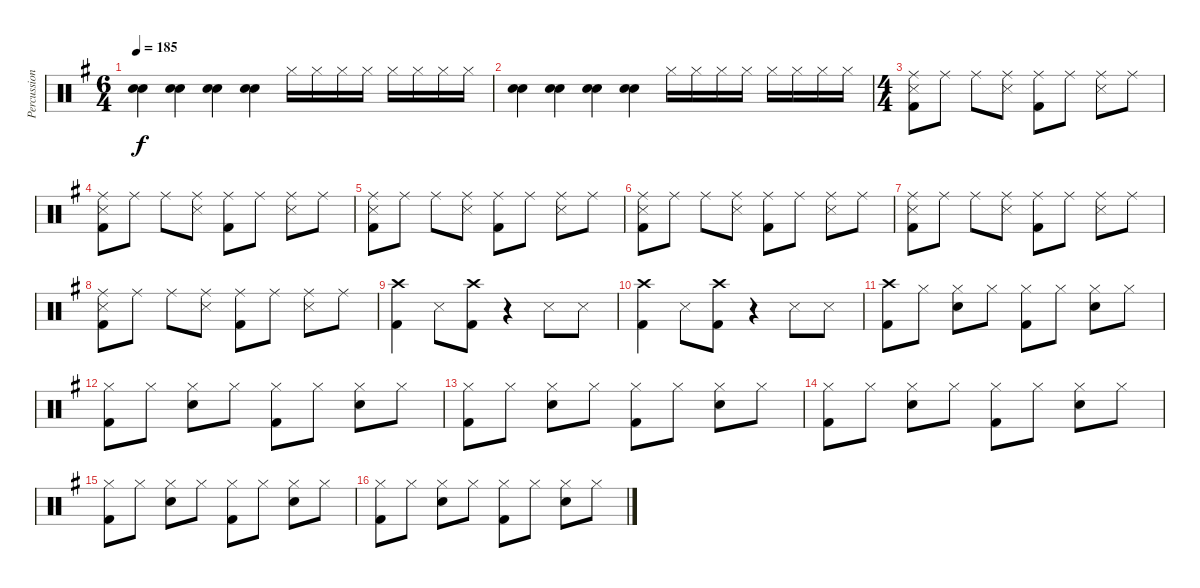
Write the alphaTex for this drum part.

\track ("Percussion" "Percussion") {instrument percussion}
\staff {score}
\articulation defaults
\ts (6 4)
\tempo 185
\clef neutral
\ks g
("Electric Snare (hit)" "Snare (hit) 2").4{dy f} ("Electric Snare (hit)" "Snare (hit) 2").4 ("Electric Snare (hit)" "Snare (hit) 2").4 ("Electric Snare (hit)" "Snare (hit) 2").4 "Hi-Hat (closed)".16 "Hi-Hat (closed)".16 "Hi-Hat (closed)".16 "Hi-Hat (closed)".16 "Hi-Hat (closed)".16 "Hi-Hat (closed)".16 "Hi-Hat (closed)".16 "Hi-Hat (closed)".16 |
("Electric Snare (hit)" "Snare (hit) 2").4 ("Electric Snare (hit)" "Snare (hit) 2").4 ("Electric Snare (hit)" "Snare (hit) 2").4 ("Electric Snare (hit)" "Snare (hit) 2").4 "Hi-Hat (closed)".16 "Hi-Hat (closed)".16 "Hi-Hat (closed)".16 "Hi-Hat (closed)".16 "Hi-Hat (closed)".16 "Hi-Hat (closed)".16 "Hi-Hat (closed)".16 "Hi-Hat (closed)".16 |
\ts (4 4)
("Ride (middle)" "Snare (side stick) 3" "Kick (hit) 2").8 "Ride (middle)".8 "Ride (middle)".8 ("Ride (middle)" "Snare (side stick) 3").8 ("Ride (middle)" "Kick (hit) 2").8 "Ride (middle)".8 ("Ride (middle)" "Snare (side stick) 3").8 "Ride (middle)".8 |
("Ride (middle)" "Snare (side stick) 3" "Kick (hit) 2").8 "Ride (middle)".8 "Ride (middle)".8 ("Ride (middle)" "Snare (side stick) 3").8 ("Ride (middle)" "Kick (hit) 2").8 "Ride (middle)".8 ("Ride (middle)" "Snare (side stick) 3").8 "Ride (middle)".8 |
("Ride (middle)" "Snare (side stick) 3" "Kick (hit) 2").8 "Ride (middle)".8 "Ride (middle)".8 ("Ride (middle)" "Snare (side stick) 3").8 ("Ride (middle)" "Kick (hit) 2").8 "Ride (middle)".8 ("Ride (middle)" "Snare (side stick) 3").8 "Ride (middle)".8 |
("Ride (middle)" "Snare (side stick) 3" "Kick (hit) 2").8 "Ride (middle)".8 "Ride (middle)".8 ("Ride (middle)" "Snare (side stick) 3").8 ("Ride (middle)" "Kick (hit) 2").8 "Ride (middle)".8 ("Ride (middle)" "Snare (side stick) 3").8 "Ride (middle)".8 |
("Ride (middle)" "Snare (side stick) 3" "Kick (hit) 2").8 "Ride (middle)".8 "Ride (middle)".8 ("Ride (middle)" "Snare (side stick) 3").8 ("Ride (middle)" "Kick (hit) 2").8 "Ride (middle)".8 ("Ride (middle)" "Snare (side stick) 3").8 "Ride (middle)".8 |
("Ride (middle)" "Snare (side stick) 3" "Kick (hit) 2").8 "Ride (middle)".8 "Ride (middle)".8 ("Ride (middle)" "Snare (side stick) 3").8 ("Ride (middle)" "Kick (hit) 2").8 "Ride (middle)".8 ("Ride (middle)" "Snare (side stick) 3").8 "Ride (middle)".8 |
("Crash high (hit)" "Kick (hit) 2").4 "Snare (side stick) 3".8 ("Crash high (hit)" "Kick (hit) 2").8 r.4 "Snare (side stick) 3".8 "Snare (side stick) 3".8 |
("Crash high (hit)" "Kick (hit) 2").4 "Snare (side stick) 3".8 ("Crash high (hit)" "Kick (hit) 2").8 r.4 "Snare (side stick) 3".8 "Snare (side stick) 3".8 |
("Crash high (hit)" "Kick (hit) 2").8 "Hi-Hat (closed)".8 ("Hi-Hat (closed)" "Snare (hit) 2").8 "Hi-Hat (closed)".8 ("Hi-Hat (closed)" "Kick (hit) 2").8 "Hi-Hat (closed)".8 ("Hi-Hat (closed)" "Snare (hit) 2").8 "Hi-Hat (closed)".8 |
("Hi-Hat (closed)" "Kick (hit) 2").8 "Hi-Hat (closed)".8 ("Hi-Hat (closed)" "Snare (hit) 2").8 "Hi-Hat (closed)".8 ("Hi-Hat (closed)" "Kick (hit) 2").8 "Hi-Hat (closed)".8 ("Hi-Hat (closed)" "Snare (hit) 2").8 "Hi-Hat (closed)".8 |
("Hi-Hat (closed)" "Kick (hit) 2").8 "Hi-Hat (closed)".8 ("Hi-Hat (closed)" "Snare (hit) 2").8 "Hi-Hat (closed)".8 ("Hi-Hat (closed)" "Kick (hit) 2").8 "Hi-Hat (closed)".8 ("Hi-Hat (closed)" "Snare (hit) 2").8 "Hi-Hat (closed)".8 |
("Hi-Hat (closed)" "Kick (hit) 2").8 "Hi-Hat (closed)".8 ("Hi-Hat (closed)" "Snare (hit) 2").8 "Hi-Hat (closed)".8 ("Hi-Hat (closed)" "Kick (hit) 2").8 "Hi-Hat (closed)".8 ("Hi-Hat (closed)" "Snare (hit) 2").8 "Hi-Hat (closed)".8 |
("Hi-Hat (closed)" "Kick (hit) 2").8 "Hi-Hat (closed)".8 ("Hi-Hat (closed)" "Snare (hit) 2").8 "Hi-Hat (closed)".8 ("Hi-Hat (closed)" "Kick (hit) 2").8 "Hi-Hat (closed)".8 ("Hi-Hat (closed)" "Snare (hit) 2").8 "Hi-Hat (closed)".8 |
("Hi-Hat (closed)" "Kick (hit) 2").8 "Hi-Hat (closed)".8 ("Hi-Hat (closed)" "Snare (hit) 2").8 "Hi-Hat (closed)".8 ("Hi-Hat (closed)" "Kick (hit) 2").8 "Hi-Hat (closed)".8 ("Hi-Hat (closed)" "Snare (hit) 2").8 "Hi-Hat (closed)".8
